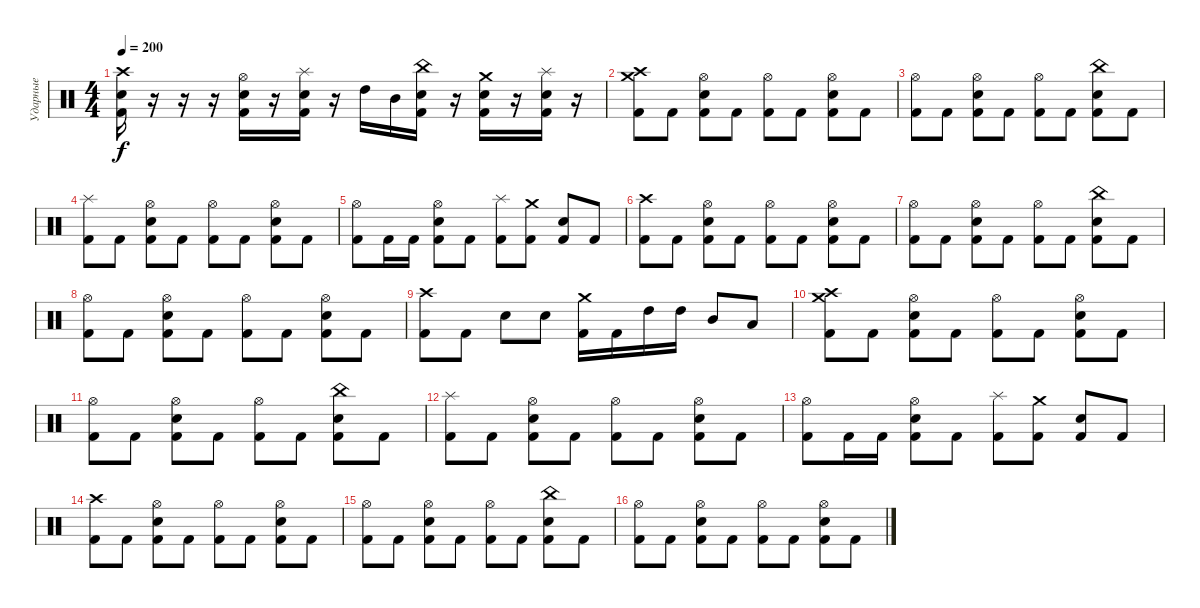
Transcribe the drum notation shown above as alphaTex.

\track ("Ударные" "Ударные") {instrument percussion}
\staff {score}
\articulation defaults
\ts (4 4)
\tempo 200
\clef neutral
\ks c
("Kick (hit) 2" "Electric Snare (hit)" "Crash high (hit)").16{dy f} r.16 r.16 r.16 ("Kick (hit) 2" "Electric Snare (hit)" "Hi-Hat (open)").16 r.16 ("Kick (hit) 2" "Electric Snare (hit)" "Splash (hit)").16 r.16 "High Tom (hit)".16 "Mid Tom (hit)".16 ("Kick (hit) 2" "Electric Snare (hit)" "China (hit)").16 r.16 ("Kick (hit) 2" "Electric Snare (hit)" "Crash medium (hit)").16 r.16 ("Kick (hit) 2" "Electric Snare (hit)" "Splash (hit)").16 r.16 |
("Kick (hit) 2" "Crash high (hit)" "Crash medium (hit)").8 "Kick (hit) 2".8 ("Kick (hit) 2" "Electric Snare (hit)" "Hi-Hat (open)").8 "Kick (hit) 2".8 ("Kick (hit) 2" "Hi-Hat (open)").8 "Kick (hit) 2".8 ("Kick (hit) 2" "Electric Snare (hit)" "Hi-Hat (open)").8 "Kick (hit) 2".8 |
("Kick (hit) 2" "Hi-Hat (open)").8 "Kick (hit) 2".8 ("Kick (hit) 2" "Electric Snare (hit)" "Hi-Hat (open)").8 "Kick (hit) 2".8 ("Kick (hit) 2" "Hi-Hat (open)").8 "Kick (hit) 2".8 ("Kick (hit) 2" "Electric Snare (hit)" "China (hit)").8 "Kick (hit) 2".8 |
("Kick (hit) 2" "Splash (hit)").8 "Kick (hit) 2".8 ("Kick (hit) 2" "Electric Snare (hit)" "Hi-Hat (open)").8 "Kick (hit) 2".8 ("Kick (hit) 2" "Hi-Hat (open)").8 "Kick (hit) 2".8 ("Kick (hit) 2" "Electric Snare (hit)" "Hi-Hat (open)").8 "Kick (hit) 2".8 |
("Kick (hit) 2" "Hi-Hat (open)").8 "Kick (hit) 2".16 "Kick (hit) 2".16 ("Kick (hit) 2" "Electric Snare (hit)" "Hi-Hat (open)").8 "Kick (hit) 2".8 ("Kick (hit) 2" "Splash (hit)").8 ("Kick (hit) 2" "Crash medium (hit)").8 ("Kick (hit) 2" "Electric Snare (hit)").8 "Kick (hit) 2".8 |
("Kick (hit) 2" "Crash high (hit)").8 "Kick (hit) 2".8 ("Kick (hit) 2" "Electric Snare (hit)" "Hi-Hat (open)").8 "Kick (hit) 2".8 ("Kick (hit) 2" "Hi-Hat (open)").8 "Kick (hit) 2".8 ("Kick (hit) 2" "Electric Snare (hit)" "Hi-Hat (open)").8 "Kick (hit) 2".8 |
("Kick (hit) 2" "Hi-Hat (open)").8 "Kick (hit) 2".8 ("Kick (hit) 2" "Electric Snare (hit)" "Hi-Hat (open)").8 "Kick (hit) 2".8 ("Kick (hit) 2" "Hi-Hat (open)").8 "Kick (hit) 2".8 ("Kick (hit) 2" "Electric Snare (hit)" "China (hit)").8 "Kick (hit) 2".8 |
("Kick (hit) 2" "Hi-Hat (open)").8 "Kick (hit) 2".8 ("Kick (hit) 2" "Electric Snare (hit)" "Hi-Hat (open)").8 "Kick (hit) 2".8 ("Kick (hit) 2" "Hi-Hat (open)").8 "Kick (hit) 2".8 ("Kick (hit) 2" "Electric Snare (hit)" "Hi-Hat (open)").8 "Kick (hit) 2".8 |
("Kick (hit) 2" "Crash high (hit)").8 "Kick (hit) 2".8 "Electric Snare (hit)".8 "Electric Snare (hit)".8 ("Kick (hit) 2" "Crash medium (hit)").16 "Kick (hit) 2".16 "High Tom (hit)".16 "High Tom (hit)".16 "Mid Tom (hit)".8 "Low Tom (hit)".8 |
("Kick (hit) 2" "Crash high (hit)" "Crash medium (hit)").8 "Kick (hit) 2".8 ("Kick (hit) 2" "Electric Snare (hit)" "Hi-Hat (open)").8 "Kick (hit) 2".8 ("Kick (hit) 2" "Hi-Hat (open)").8 "Kick (hit) 2".8 ("Kick (hit) 2" "Electric Snare (hit)" "Hi-Hat (open)").8 "Kick (hit) 2".8 |
("Kick (hit) 2" "Hi-Hat (open)").8 "Kick (hit) 2".8 ("Kick (hit) 2" "Electric Snare (hit)" "Hi-Hat (open)").8 "Kick (hit) 2".8 ("Kick (hit) 2" "Hi-Hat (open)").8 "Kick (hit) 2".8 ("Kick (hit) 2" "Electric Snare (hit)" "China (hit)").8 "Kick (hit) 2".8 |
("Kick (hit) 2" "Splash (hit)").8 "Kick (hit) 2".8 ("Kick (hit) 2" "Electric Snare (hit)" "Hi-Hat (open)").8 "Kick (hit) 2".8 ("Kick (hit) 2" "Hi-Hat (open)").8 "Kick (hit) 2".8 ("Kick (hit) 2" "Electric Snare (hit)" "Hi-Hat (open)").8 "Kick (hit) 2".8 |
("Kick (hit) 2" "Hi-Hat (open)").8 "Kick (hit) 2".16 "Kick (hit) 2".16 ("Kick (hit) 2" "Electric Snare (hit)" "Hi-Hat (open)").8 "Kick (hit) 2".8 ("Kick (hit) 2" "Splash (hit)").8 ("Kick (hit) 2" "Crash medium (hit)").8 ("Kick (hit) 2" "Electric Snare (hit)").8 "Kick (hit) 2".8 |
("Kick (hit) 2" "Crash high (hit)").8 "Kick (hit) 2".8 ("Kick (hit) 2" "Electric Snare (hit)" "Hi-Hat (open)").8 "Kick (hit) 2".8 ("Kick (hit) 2" "Hi-Hat (open)").8 "Kick (hit) 2".8 ("Kick (hit) 2" "Electric Snare (hit)" "Hi-Hat (open)").8 "Kick (hit) 2".8 |
("Kick (hit) 2" "Hi-Hat (open)").8 "Kick (hit) 2".8 ("Kick (hit) 2" "Electric Snare (hit)" "Hi-Hat (open)").8 "Kick (hit) 2".8 ("Kick (hit) 2" "Hi-Hat (open)").8 "Kick (hit) 2".8 ("Kick (hit) 2" "Electric Snare (hit)" "China (hit)").8 "Kick (hit) 2".8 |
("Kick (hit) 2" "Hi-Hat (open)").8 "Kick (hit) 2".8 ("Kick (hit) 2" "Electric Snare (hit)" "Hi-Hat (open)").8 "Kick (hit) 2".8 ("Kick (hit) 2" "Hi-Hat (open)").8 "Kick (hit) 2".8 ("Kick (hit) 2" "Electric Snare (hit)" "Hi-Hat (open)").8 "Kick (hit) 2".8
